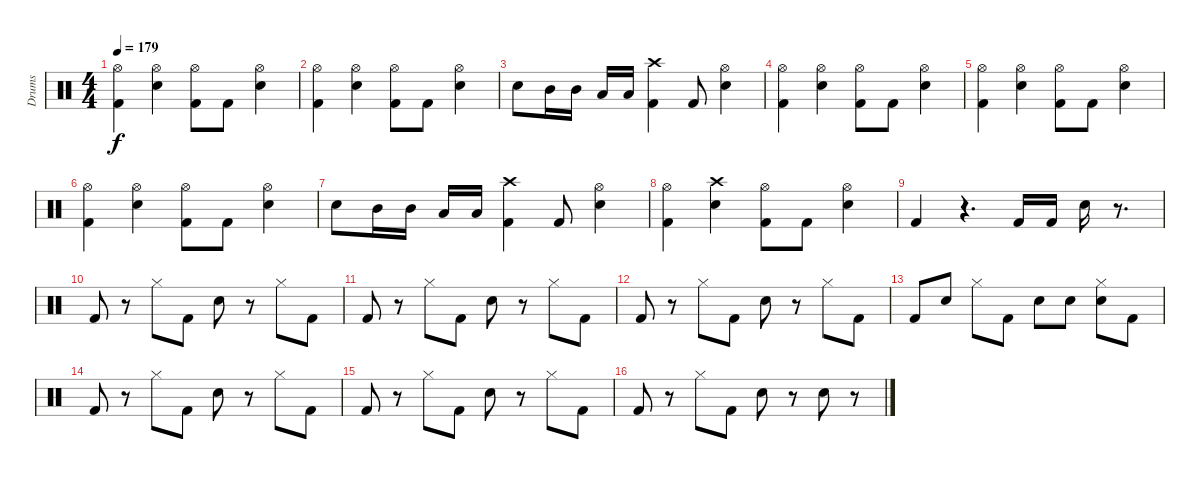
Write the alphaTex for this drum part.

\track ("Drums" "Drums") {instrument percussion}
\staff {score}
\articulation defaults
\ts (4 4)
\tempo 179
\clef neutral
\ks c
("Hi-Hat (open)" "Kick (hit) 2").4{dy f} ("Hi-Hat (open)" "Snare (hit) 2").4 ("Hi-Hat (open)" "Kick (hit) 2").8 "Kick (hit) 2".8 ("Hi-Hat (open)" "Snare (hit) 2").4 |
("Hi-Hat (open)" "Kick (hit) 2").4 ("Hi-Hat (open)" "Snare (hit) 2").4 ("Hi-Hat (open)" "Kick (hit) 2").8 "Kick (hit) 2".8 ("Hi-Hat (open)" "Snare (hit) 2").4 |
"Snare (hit) 2".8 "Mid Tom (hit)".16 "Mid Tom (hit)".16 "Low Tom (hit)".16 "Low Tom (hit)".16 ("Crash high (hit)" "Kick (hit) 2").4 "Kick (hit) 2".8 ("Hi-Hat (open)" "Snare (hit) 2").4 |
("Hi-Hat (open)" "Kick (hit) 2").4 ("Hi-Hat (open)" "Snare (hit) 2").4 ("Hi-Hat (open)" "Kick (hit) 2").8 "Kick (hit) 2".8 ("Hi-Hat (open)" "Snare (hit) 2").4 |
("Hi-Hat (open)" "Kick (hit) 2").4 ("Hi-Hat (open)" "Snare (hit) 2").4 ("Hi-Hat (open)" "Kick (hit) 2").8 "Kick (hit) 2".8 ("Hi-Hat (open)" "Snare (hit) 2").4 |
("Hi-Hat (open)" "Kick (hit) 2").4 ("Hi-Hat (open)" "Snare (hit) 2").4 ("Hi-Hat (open)" "Kick (hit) 2").8 "Kick (hit) 2".8 ("Hi-Hat (open)" "Snare (hit) 2").4 |
"Snare (hit) 2".8 "Mid Tom (hit)".16 "Mid Tom (hit)".16 "Low Tom (hit)".16 "Low Tom (hit)".16 ("Crash high (hit)" "Kick (hit) 2").4 "Kick (hit) 2".8 ("Hi-Hat (open)" "Snare (hit) 2").4 |
("Hi-Hat (open)" "Kick (hit) 2").4 ("Crash high (hit)" "Snare (hit) 2").4 ("Hi-Hat (open)" "Kick (hit) 2").8 "Kick (hit) 2".8 ("Hi-Hat (open)" "Snare (hit) 2").4 |
"Kick (hit) 2".4 r.4{d} "Kick (hit) 2".16 "Kick (hit) 2".16 "Snare (hit) 2".16 r.8{d} |
"Kick (hit) 2".8 r.8 "Hi-Hat (closed)".8 "Kick (hit) 2".8 "Snare (hit) 2".8 r.8 "Hi-Hat (closed)".8 "Kick (hit) 2".8 |
"Kick (hit) 2".8 r.8 "Hi-Hat (closed)".8 "Kick (hit) 2".8 "Snare (hit) 2".8 r.8 "Hi-Hat (closed)".8 "Kick (hit) 2".8 |
"Kick (hit) 2".8 r.8 "Hi-Hat (closed)".8 "Kick (hit) 2".8 "Snare (hit) 2".8 r.8 "Hi-Hat (closed)".8 "Kick (hit) 2".8 |
"Kick (hit) 2".8 "Electric Snare (hit)".8 "Hi-Hat (closed)".8 "Kick (hit) 2".8 "Snare (hit) 2".8 "Snare (hit) 2".8 ("Hi-Hat (closed)" "Snare (hit) 2").8 "Kick (hit) 2".8 |
"Kick (hit) 2".8 r.8 "Hi-Hat (closed)".8 "Kick (hit) 2".8 "Snare (hit) 2".8 r.8 "Hi-Hat (closed)".8 "Kick (hit) 2".8 |
"Kick (hit) 2".8 r.8 "Hi-Hat (closed)".8 "Kick (hit) 2".8 "Snare (hit) 2".8 r.8 "Hi-Hat (closed)".8 "Kick (hit) 2".8 |
"Kick (hit) 2".8 r.8 "Hi-Hat (closed)".8 "Kick (hit) 2".8 "Snare (hit) 2".8 r.8 "Snare (hit) 2".8 r.8
